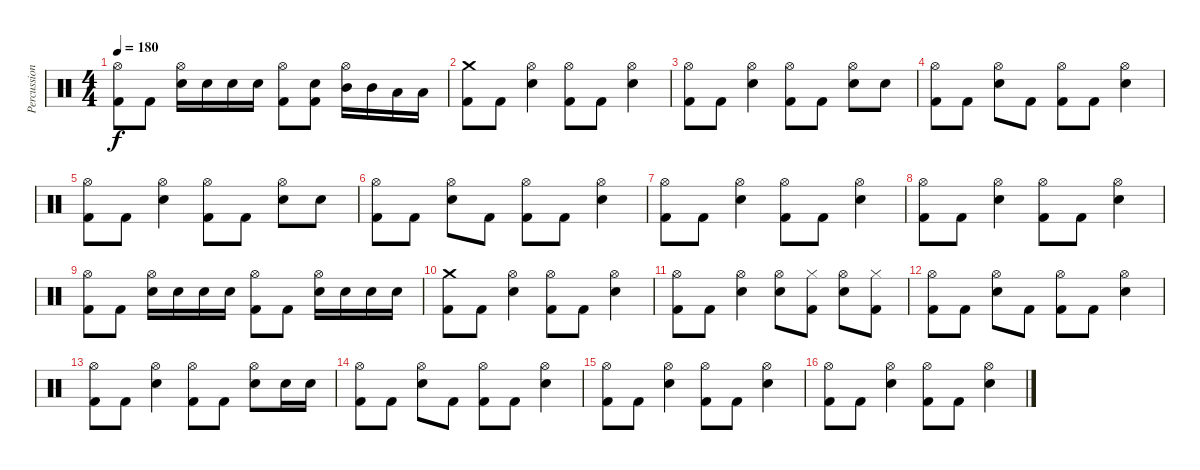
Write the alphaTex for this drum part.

\track ("Percussions" "Percussion") {instrument percussion}
\staff {score}
\articulation defaults
\ts (4 4)
\tempo 180
\clef neutral
\ks c
("Hi-Hat (open)" "Kick (hit) 2").8{dy f} "Kick (hit) 2".8 ("Electric Snare (hit)" "Hi-Hat (open)").16 "Electric Snare (hit)".16 "Electric Snare (hit)".16 "Electric Snare (hit)".16 ("Hi-Hat (open)" "Kick (hit) 2").8 ("Electric Snare (hit)" "Kick (hit) 2").8 ("Mid Tom (hit)" "Hi-Hat (open)").16 "Mid Tom (hit)".16 "Low Tom (hit)".16 "Low Tom (hit)".16 |
("Crash medium (hit)" "Kick (hit) 2").8 "Kick (hit) 2".8 ("Electric Snare (hit)" "Hi-Hat (open)").4 ("Hi-Hat (open)" "Kick (hit) 2").8 "Kick (hit) 2".8 ("Electric Snare (hit)" "Hi-Hat (open)").4 |
("Hi-Hat (open)" "Kick (hit) 2").8 "Kick (hit) 2".8 ("Electric Snare (hit)" "Hi-Hat (open)").4 ("Hi-Hat (open)" "Kick (hit) 2").8 "Kick (hit) 2".8 ("Electric Snare (hit)" "Hi-Hat (open)").8 "Electric Snare (hit)".8 |
("Hi-Hat (open)" "Kick (hit) 2").8 "Kick (hit) 2".8 ("Electric Snare (hit)" "Hi-Hat (open)").8 "Kick (hit) 2".8 ("Hi-Hat (open)" "Kick (hit) 2").8 "Kick (hit) 2".8 ("Electric Snare (hit)" "Hi-Hat (open)").4 |
("Hi-Hat (open)" "Kick (hit) 2").8 "Kick (hit) 2".8 ("Electric Snare (hit)" "Hi-Hat (open)").4 ("Hi-Hat (open)" "Kick (hit) 2").8 "Kick (hit) 2".8 ("Electric Snare (hit)" "Hi-Hat (open)").8 "Electric Snare (hit)".8 |
("Hi-Hat (open)" "Kick (hit) 2").8 "Kick (hit) 2".8 ("Electric Snare (hit)" "Hi-Hat (open)").8 "Kick (hit) 2".8 ("Hi-Hat (open)" "Kick (hit) 2").8 "Kick (hit) 2".8 ("Electric Snare (hit)" "Hi-Hat (open)").4 |
("Hi-Hat (open)" "Kick (hit) 2").8 "Kick (hit) 2".8 ("Electric Snare (hit)" "Hi-Hat (open)").4 ("Hi-Hat (open)" "Kick (hit) 2").8 "Kick (hit) 2".8 ("Electric Snare (hit)" "Hi-Hat (open)").4 |
("Hi-Hat (open)" "Kick (hit) 2").8 "Kick (hit) 2".8 ("Electric Snare (hit)" "Hi-Hat (open)").4 ("Hi-Hat (open)" "Kick (hit) 2").8 "Kick (hit) 2".8 ("Electric Snare (hit)" "Hi-Hat (open)").4 |
("Hi-Hat (open)" "Kick (hit) 2").8 "Kick (hit) 2".8 ("Electric Snare (hit)" "Hi-Hat (open)").16 "Electric Snare (hit)".16 "Electric Snare (hit)".16 "Electric Snare (hit)".16 ("Hi-Hat (open)" "Kick (hit) 2").8 "Kick (hit) 2".8 ("Electric Snare (hit)" "Hi-Hat (open)").16 "Electric Snare (hit)".16 "Electric Snare (hit)".16 "Electric Snare (hit)".16 |
("Crash medium (hit)" "Kick (hit) 2").8 "Kick (hit) 2".8 ("Electric Snare (hit)" "Hi-Hat (open)").4 ("Hi-Hat (open)" "Kick (hit) 2").8 "Kick (hit) 2".8 ("Electric Snare (hit)" "Hi-Hat (open)").4 |
("Hi-Hat (open)" "Kick (hit) 2").8 "Kick (hit) 2".8 ("Electric Snare (hit)" "Hi-Hat (open)").4 ("Electric Snare (hit)" "Hi-Hat (open)").8 ("Hi-Hat (closed)" "Kick (hit) 2").8 ("Electric Snare (hit)" "Hi-Hat (open)").8 ("Hi-Hat (closed)" "Kick (hit) 2").8 |
("Hi-Hat (open)" "Kick (hit) 2").8 "Kick (hit) 2".8 ("Electric Snare (hit)" "Hi-Hat (open)").8 "Kick (hit) 2".8 ("Hi-Hat (open)" "Kick (hit) 2").8 "Kick (hit) 2".8 ("Electric Snare (hit)" "Hi-Hat (open)").4 |
("Hi-Hat (open)" "Kick (hit) 2").8 "Kick (hit) 2".8 ("Electric Snare (hit)" "Hi-Hat (open)").4 ("Hi-Hat (open)" "Kick (hit) 2").8 "Kick (hit) 2".8 ("Electric Snare (hit)" "Hi-Hat (open)").8 "Electric Snare (hit)".16 "Electric Snare (hit)".16 |
("Hi-Hat (open)" "Kick (hit) 2").8 "Kick (hit) 2".8 ("Electric Snare (hit)" "Hi-Hat (open)").8 "Kick (hit) 2".8 ("Hi-Hat (open)" "Kick (hit) 2").8 "Kick (hit) 2".8 ("Electric Snare (hit)" "Hi-Hat (open)").4 |
("Hi-Hat (open)" "Kick (hit) 2").8 "Kick (hit) 2".8 ("Electric Snare (hit)" "Hi-Hat (open)").4 ("Hi-Hat (open)" "Kick (hit) 2").8 "Kick (hit) 2".8 ("Electric Snare (hit)" "Hi-Hat (open)").4 |
("Hi-Hat (open)" "Kick (hit) 2").8 "Kick (hit) 2".8 ("Electric Snare (hit)" "Hi-Hat (open)").4 ("Hi-Hat (open)" "Kick (hit) 2").8 "Kick (hit) 2".8 ("Electric Snare (hit)" "Hi-Hat (open)").4
